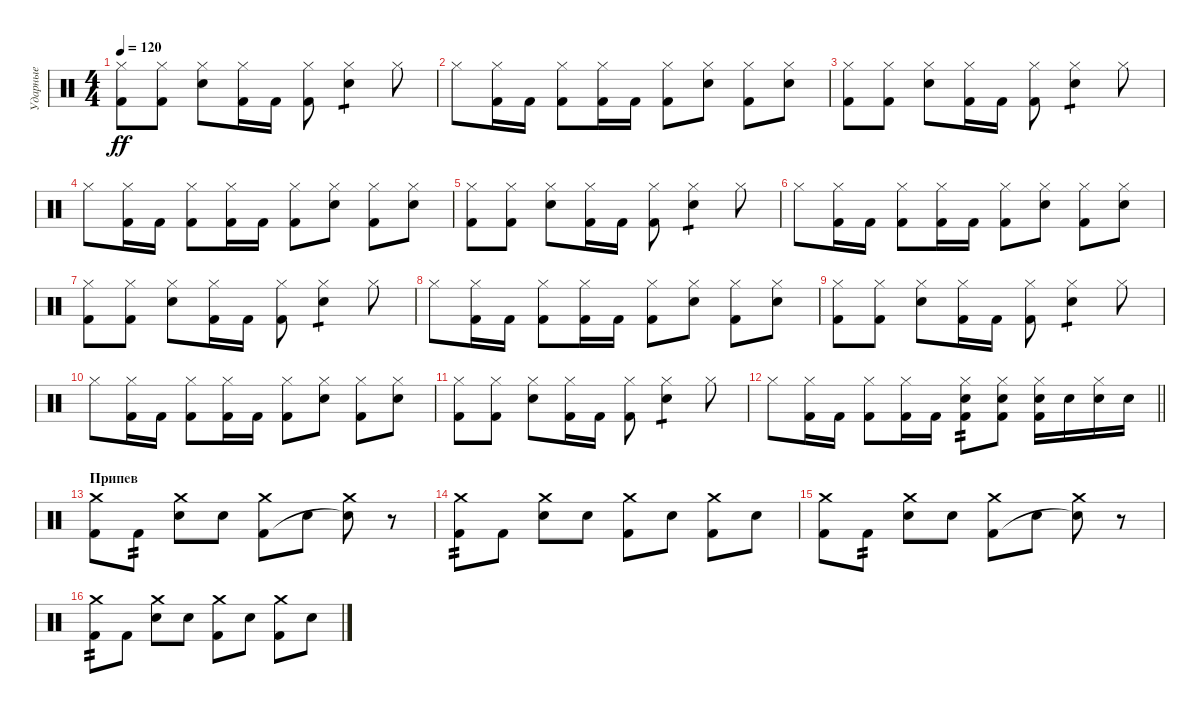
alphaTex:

\track ("Ударные" "Ударные") {instrument percussion}
\staff {score}
\articulation defaults
\ts (4 4)
\tempo 120
\clef neutral
\ks c
("Hi-Hat (closed)" "Kick (hit) 2").8{dy ff} ("Hi-Hat (closed)" "Kick (hit) 2").8 ("Hi-Hat (closed)" "Electric Snare (hit)").8 ("Hi-Hat (closed)" "Kick (hit) 2").16 "Kick (hit) 2".16 ("Hi-Hat (closed)" "Kick (hit) 2").8 ("Hi-Hat (closed)" "Electric Snare (hit)").4{tp 1} "Hi-Hat (closed)".8 |
"Hi-Hat (closed)".8 ("Hi-Hat (closed)" "Kick (hit) 2").16 "Kick (hit) 2".16 ("Hi-Hat (closed)" "Kick (hit) 2").8 ("Hi-Hat (closed)" "Kick (hit) 2").16 "Kick (hit) 2".16 ("Hi-Hat (closed)" "Kick (hit) 2").8 ("Hi-Hat (closed)" "Electric Snare (hit)").8 ("Hi-Hat (closed)" "Kick (hit) 2").8 ("Hi-Hat (closed)" "Electric Snare (hit)").8 |
("Hi-Hat (closed)" "Kick (hit) 2").8 ("Hi-Hat (closed)" "Kick (hit) 2").8 ("Hi-Hat (closed)" "Electric Snare (hit)").8 ("Hi-Hat (closed)" "Kick (hit) 2").16 "Kick (hit) 2".16 ("Hi-Hat (closed)" "Kick (hit) 2").8 ("Hi-Hat (closed)" "Electric Snare (hit)").4{tp 1} "Hi-Hat (closed)".8 |
"Hi-Hat (closed)".8 ("Hi-Hat (closed)" "Kick (hit) 2").16 "Kick (hit) 2".16 ("Hi-Hat (closed)" "Kick (hit) 2").8 ("Hi-Hat (closed)" "Kick (hit) 2").16 "Kick (hit) 2".16 ("Hi-Hat (closed)" "Kick (hit) 2").8 ("Hi-Hat (closed)" "Electric Snare (hit)").8 ("Hi-Hat (closed)" "Kick (hit) 2").8 ("Hi-Hat (closed)" "Electric Snare (hit)").8 |
("Hi-Hat (closed)" "Kick (hit) 2").8 ("Hi-Hat (closed)" "Kick (hit) 2").8 ("Hi-Hat (closed)" "Electric Snare (hit)").8 ("Hi-Hat (closed)" "Kick (hit) 2").16 "Kick (hit) 2".16 ("Hi-Hat (closed)" "Kick (hit) 2").8 ("Hi-Hat (closed)" "Electric Snare (hit)").4{tp 1} "Hi-Hat (closed)".8 |
"Hi-Hat (closed)".8 ("Hi-Hat (closed)" "Kick (hit) 2").16 "Kick (hit) 2".16 ("Hi-Hat (closed)" "Kick (hit) 2").8 ("Hi-Hat (closed)" "Kick (hit) 2").16 "Kick (hit) 2".16 ("Hi-Hat (closed)" "Kick (hit) 2").8 ("Hi-Hat (closed)" "Electric Snare (hit)").8 ("Hi-Hat (closed)" "Kick (hit) 2").8 ("Hi-Hat (closed)" "Electric Snare (hit)").8 |
("Hi-Hat (closed)" "Kick (hit) 2").8 ("Hi-Hat (closed)" "Kick (hit) 2").8 ("Hi-Hat (closed)" "Electric Snare (hit)").8 ("Hi-Hat (closed)" "Kick (hit) 2").16 "Kick (hit) 2".16 ("Hi-Hat (closed)" "Kick (hit) 2").8 ("Hi-Hat (closed)" "Electric Snare (hit)").4{tp 1} "Hi-Hat (closed)".8 |
"Hi-Hat (closed)".8 ("Hi-Hat (closed)" "Kick (hit) 2").16 "Kick (hit) 2".16 ("Hi-Hat (closed)" "Kick (hit) 2").8 ("Hi-Hat (closed)" "Kick (hit) 2").16 "Kick (hit) 2".16 ("Hi-Hat (closed)" "Kick (hit) 2").8 ("Hi-Hat (closed)" "Electric Snare (hit)").8 ("Hi-Hat (closed)" "Kick (hit) 2").8 ("Hi-Hat (closed)" "Electric Snare (hit)").8 |
("Hi-Hat (closed)" "Kick (hit) 2").8 ("Hi-Hat (closed)" "Kick (hit) 2").8 ("Hi-Hat (closed)" "Electric Snare (hit)").8 ("Hi-Hat (closed)" "Kick (hit) 2").16 "Kick (hit) 2".16 ("Hi-Hat (closed)" "Kick (hit) 2").8 ("Hi-Hat (closed)" "Electric Snare (hit)").4{tp 1} "Hi-Hat (closed)".8 |
"Hi-Hat (closed)".8 ("Hi-Hat (closed)" "Kick (hit) 2").16 "Kick (hit) 2".16 ("Hi-Hat (closed)" "Kick (hit) 2").8 ("Hi-Hat (closed)" "Kick (hit) 2").16 "Kick (hit) 2".16 ("Hi-Hat (closed)" "Kick (hit) 2").8 ("Hi-Hat (closed)" "Electric Snare (hit)").8 ("Hi-Hat (closed)" "Kick (hit) 2").8 ("Hi-Hat (closed)" "Electric Snare (hit)").8 |
("Hi-Hat (closed)" "Kick (hit) 2").8 ("Hi-Hat (closed)" "Kick (hit) 2").8 ("Hi-Hat (closed)" "Electric Snare (hit)").8 ("Hi-Hat (closed)" "Kick (hit) 2").16 "Kick (hit) 2".16 ("Hi-Hat (closed)" "Kick (hit) 2").8 ("Hi-Hat (closed)" "Electric Snare (hit)").4{tp 1} "Hi-Hat (closed)".8 |
\barLineRight lightlight "Hi-Hat (closed)".8
("Hi-Hat (closed)" "Kick (hit) 2").16 "Kick (hit) 2".16 ("Hi-Hat (closed)" "Kick (hit) 2").8 ("Hi-Hat (closed)" "Kick (hit) 2").16 "Kick (hit) 2".16 ("Hi-Hat (closed)" "Electric Snare (hit)" "Kick (hit) 2").8{tp 2} ("Hi-Hat (closed)" "Electric Snare (hit)" "Kick (hit) 2").8 ("Hi-Hat (closed)" "Electric Snare (hit)" "Kick (hit) 2").16 "Electric Snare (hit)".16 ("Hi-Hat (closed)" "Electric Snare (hit)").16 "Electric Snare (hit)".16 |
\section ("" "Припев")
("Crash medium (hit)" "Kick (hit) 2").8 "Kick (hit) 2".8{tp 2} ("Crash medium (hit)" "Electric Snare (hit)").8 "Electric Snare (hit)".8 ("Crash medium (hit)" "Kick (hit) 2").8 "Electric Snare (hit)".8 ("Crash medium (hit)" "Electric Snare (hit)"{t}).8 r.8 |
("Crash medium (hit)" "Kick (hit) 2").8{tp 2} "Kick (hit) 2".8 ("Crash medium (hit)" "Electric Snare (hit)").8 "Electric Snare (hit)".8 ("Crash medium (hit)" "Kick (hit) 2").8 "Electric Snare (hit)".8 ("Crash medium (hit)" "Kick (hit) 2").8 "Electric Snare (hit)".8 |
("Crash medium (hit)" "Kick (hit) 2").8 "Kick (hit) 2".8{tp 2} ("Crash medium (hit)" "Electric Snare (hit)").8 "Electric Snare (hit)".8 ("Crash medium (hit)" "Kick (hit) 2").8 "Electric Snare (hit)".8 ("Crash medium (hit)" "Electric Snare (hit)"{t}).8 r.8 |
("Crash medium (hit)" "Kick (hit) 2").8{tp 2} "Kick (hit) 2".8 ("Crash medium (hit)" "Electric Snare (hit)").8 "Electric Snare (hit)".8 ("Crash medium (hit)" "Kick (hit) 2").8 "Electric Snare (hit)".8 ("Crash medium (hit)" "Kick (hit) 2").8 "Electric Snare (hit)".8
